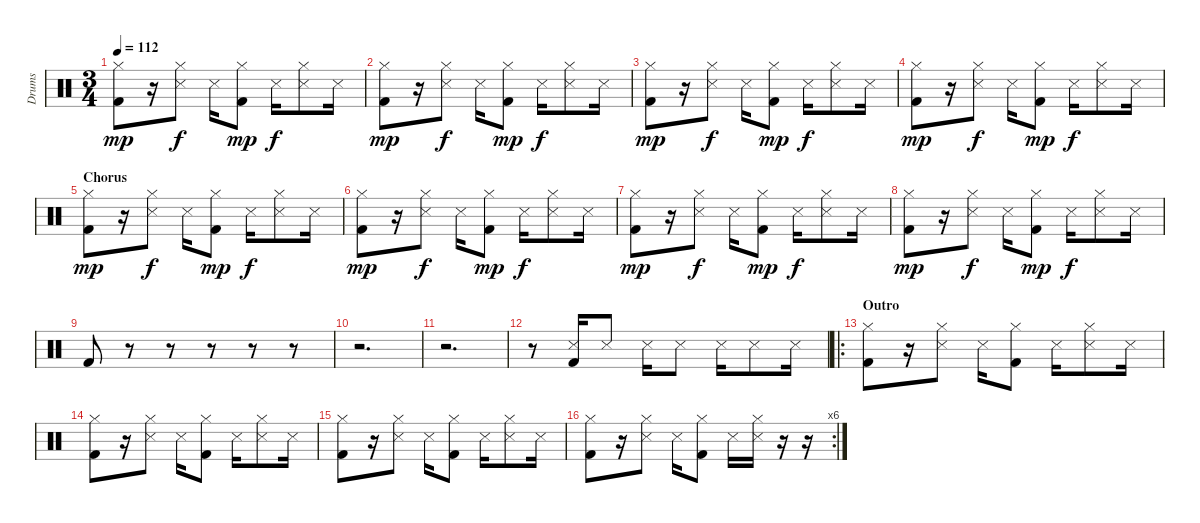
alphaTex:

\track ("Drums" "Drums") {instrument percussion}
\staff {score}
\articulation defaults
\ts (3 4)
\tempo 112
\clef neutral
\ks c
("Hi-Hat (closed)" "Kick (hit) 2").8{dy mp} r.16 ("Hi-Hat (closed)" "Snare (side stick) 3").8{dy f} "Snare (side stick) 3".16 ("Hi-Hat (closed)" "Kick (hit) 2").8{dy mp} "Snare (side stick) 3".16{dy f} ("Hi-Hat (closed)" "Snare (side stick) 3").8 "Snare (side stick) 3".16 |
("Hi-Hat (closed)" "Kick (hit) 2").8{dy mp} r.16 ("Hi-Hat (closed)" "Snare (side stick) 3").8{dy f} "Snare (side stick) 3".16 ("Hi-Hat (closed)" "Kick (hit) 2").8{dy mp} "Snare (side stick) 3".16{dy f} ("Hi-Hat (closed)" "Snare (side stick) 3").8 "Snare (side stick) 3".16 |
("Hi-Hat (closed)" "Kick (hit) 2").8{dy mp} r.16 ("Hi-Hat (closed)" "Snare (side stick) 3").8{dy f} "Snare (side stick) 3".16 ("Hi-Hat (closed)" "Kick (hit) 2").8{dy mp} "Snare (side stick) 3".16{dy f} ("Hi-Hat (closed)" "Snare (side stick) 3").8 "Snare (side stick) 3".16 |
("Hi-Hat (closed)" "Kick (hit) 2").8{dy mp} r.16 ("Hi-Hat (closed)" "Snare (side stick) 3").8{dy f} "Snare (side stick) 3".16 ("Hi-Hat (closed)" "Kick (hit) 2").8{dy mp} "Snare (side stick) 3".16{dy f} ("Hi-Hat (closed)" "Snare (side stick) 3").8 "Snare (side stick) 3".16 |
\section ("" "Chorus")
("Hi-Hat (closed)" "Kick (hit) 2").8{dy mp} r.16 ("Hi-Hat (closed)" "Snare (side stick) 3").8{dy f} "Snare (side stick) 3".16 ("Hi-Hat (closed)" "Kick (hit) 2").8{dy mp} "Snare (side stick) 3".16{dy f} ("Hi-Hat (closed)" "Snare (side stick) 3").8 "Snare (side stick) 3".16 |
("Hi-Hat (closed)" "Kick (hit) 2").8{dy mp} r.16 ("Hi-Hat (closed)" "Snare (side stick) 3").8{dy f} "Snare (side stick) 3".16 ("Hi-Hat (closed)" "Kick (hit) 2").8{dy mp} "Snare (side stick) 3".16{dy f} ("Hi-Hat (closed)" "Snare (side stick) 3").8 "Snare (side stick) 3".16 |
("Hi-Hat (closed)" "Kick (hit) 2").8{dy mp} r.16 ("Hi-Hat (closed)" "Snare (side stick) 3").8{dy f} "Snare (side stick) 3".16 ("Hi-Hat (closed)" "Kick (hit) 2").8{dy mp} "Snare (side stick) 3".16{dy f} ("Hi-Hat (closed)" "Snare (side stick) 3").8 "Snare (side stick) 3".16 |
("Hi-Hat (closed)" "Kick (hit) 2").8{dy mp} r.16 ("Hi-Hat (closed)" "Snare (side stick) 3").8{dy f} "Snare (side stick) 3".16 ("Hi-Hat (closed)" "Kick (hit) 2").8{dy mp} "Snare (side stick) 3".16{dy f} ("Hi-Hat (closed)" "Snare (side stick) 3").8 "Snare (side stick) 3".16 |
"Kick (hit) 2".8 r.8 r.8 r.8 r.8 r.8 |
r.2{d} |
r.2{d} |
r.8 ("Snare (side stick) 3" "Kick (hit) 2").16 "Snare (side stick) 3".8 "Snare (side stick) 3".16 "Snare (side stick) 3".8 "Snare (side stick) 3".16 "Snare (side stick) 3".8 "Snare (side stick) 3".16 |
\ro
\section ("" "Outro")
("Hi-Hat (closed)" "Kick (hit) 2").8 r.16 ("Hi-Hat (closed)" "Snare (side stick) 3").8 "Snare (side stick) 3".16 ("Hi-Hat (closed)" "Kick (hit) 2").8 "Snare (side stick) 3".16 ("Hi-Hat (closed)" "Snare (side stick) 3").8 "Snare (side stick) 3".16 |
("Hi-Hat (closed)" "Kick (hit) 2").8 r.16 ("Hi-Hat (closed)" "Snare (side stick) 3").8 "Snare (side stick) 3".16 ("Hi-Hat (closed)" "Kick (hit) 2").8 "Snare (side stick) 3".16 ("Hi-Hat (closed)" "Snare (side stick) 3").8 "Snare (side stick) 3".16 |
("Hi-Hat (closed)" "Kick (hit) 2").8 r.16 ("Hi-Hat (closed)" "Snare (side stick) 3").8 "Snare (side stick) 3".16 ("Hi-Hat (closed)" "Kick (hit) 2").8 "Snare (side stick) 3".16 ("Hi-Hat (closed)" "Snare (side stick) 3").8 "Snare (side stick) 3".16 |
\rc 6
("Hi-Hat (closed)" "Kick (hit) 2").8 r.16 ("Hi-Hat (closed)" "Snare (side stick) 3").8 "Snare (side stick) 3".16 ("Hi-Hat (closed)" "Kick (hit) 2").8 "Snare (side stick) 3".16 ("Hi-Hat (closed)" "Snare (side stick) 3").16 r.16 r.16
